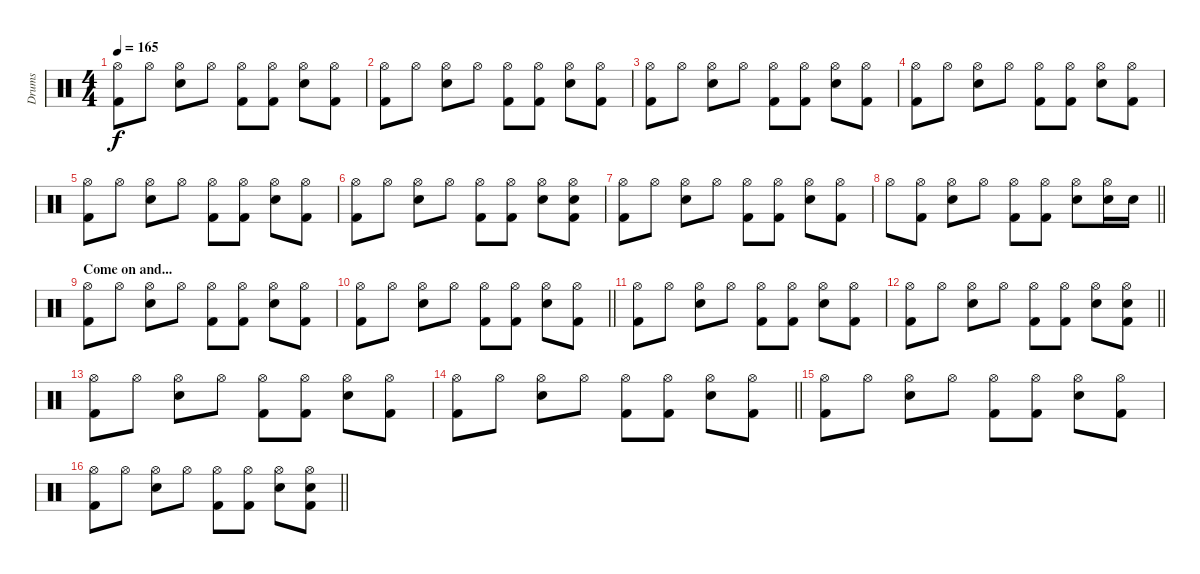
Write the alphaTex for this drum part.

\track ("Drums" "Drums") {instrument percussion}
\staff {score}
\articulation defaults
\ts (4 4)
\tempo 165
\clef neutral
\ks c
("Hi-Hat (open)" "Kick (hit) 2").8{dy f} "Hi-Hat (open)".8 ("Hi-Hat (open)" "Electric Snare (hit)").8 "Hi-Hat (open)".8 ("Hi-Hat (open)" "Kick (hit) 2").8 ("Hi-Hat (open)" "Kick (hit) 2").8 ("Hi-Hat (open)" "Electric Snare (hit)").8 ("Hi-Hat (open)" "Kick (hit) 2").8 |
("Hi-Hat (open)" "Kick (hit) 2").8 "Hi-Hat (open)".8 ("Hi-Hat (open)" "Electric Snare (hit)").8 "Hi-Hat (open)".8 ("Hi-Hat (open)" "Kick (hit) 2").8 ("Hi-Hat (open)" "Kick (hit) 2").8 ("Hi-Hat (open)" "Electric Snare (hit)").8 ("Hi-Hat (open)" "Kick (hit) 2").8 |
("Hi-Hat (open)" "Kick (hit) 2").8 "Hi-Hat (open)".8 ("Hi-Hat (open)" "Electric Snare (hit)").8 "Hi-Hat (open)".8 ("Hi-Hat (open)" "Kick (hit) 2").8 ("Hi-Hat (open)" "Kick (hit) 2").8 ("Hi-Hat (open)" "Electric Snare (hit)").8 ("Hi-Hat (open)" "Kick (hit) 2").8 |
("Hi-Hat (open)" "Kick (hit) 2").8 "Hi-Hat (open)".8 ("Hi-Hat (open)" "Electric Snare (hit)").8 "Hi-Hat (open)".8 ("Hi-Hat (open)" "Kick (hit) 2").8 ("Hi-Hat (open)" "Kick (hit) 2").8 ("Hi-Hat (open)" "Electric Snare (hit)").8 ("Hi-Hat (open)" "Kick (hit) 2").8 |
("Hi-Hat (open)" "Kick (hit) 2").8 "Hi-Hat (open)".8 ("Hi-Hat (open)" "Electric Snare (hit)").8 "Hi-Hat (open)".8 ("Hi-Hat (open)" "Kick (hit) 2").8 ("Hi-Hat (open)" "Kick (hit) 2").8 ("Hi-Hat (open)" "Electric Snare (hit)").8 ("Hi-Hat (open)" "Kick (hit) 2").8 |
("Hi-Hat (open)" "Kick (hit) 2").8 "Hi-Hat (open)".8 ("Hi-Hat (open)" "Electric Snare (hit)").8 "Hi-Hat (open)".8 ("Hi-Hat (open)" "Kick (hit) 2").8 ("Hi-Hat (open)" "Kick (hit) 2").8 ("Hi-Hat (open)" "Electric Snare (hit)").8 ("Hi-Hat (open)" "Electric Snare (hit)" "Kick (hit) 2").8 |
("Hi-Hat (open)" "Kick (hit) 2").8 "Hi-Hat (open)".8 ("Hi-Hat (open)" "Electric Snare (hit)").8 "Hi-Hat (open)".8 ("Hi-Hat (open)" "Kick (hit) 2").8 ("Hi-Hat (open)" "Kick (hit) 2").8 ("Hi-Hat (open)" "Electric Snare (hit)").8 ("Hi-Hat (open)" "Kick (hit) 2").8 |
\barLineRight lightlight "Hi-Hat (open)".8
("Hi-Hat (open)" "Kick (hit) 2").8 ("Hi-Hat (open)" "Electric Snare (hit)").8 "Hi-Hat (open)".8 ("Hi-Hat (open)" "Kick (hit) 2").8 ("Hi-Hat (open)" "Kick (hit) 2").8 ("Hi-Hat (open)" "Electric Snare (hit)").8 ("Hi-Hat (open)" "Electric Snare (hit)").16 "Electric Snare (hit)".16 |
\section ("" "Come on and...")
("Hi-Hat (open)" "Kick (hit) 2").8 "Hi-Hat (open)".8 ("Hi-Hat (open)" "Electric Snare (hit)").8 "Hi-Hat (open)".8 ("Hi-Hat (open)" "Kick (hit) 2").8 ("Hi-Hat (open)" "Kick (hit) 2").8 ("Hi-Hat (open)" "Electric Snare (hit)").8 ("Hi-Hat (open)" "Kick (hit) 2").8 |
\barLineRight lightlight
("Hi-Hat (open)" "Kick (hit) 2").8 "Hi-Hat (open)".8 ("Hi-Hat (open)" "Electric Snare (hit)").8 "Hi-Hat (open)".8 ("Hi-Hat (open)" "Kick (hit) 2").8 ("Hi-Hat (open)" "Kick (hit) 2").8 ("Hi-Hat (open)" "Electric Snare (hit)").8 ("Hi-Hat (open)" "Kick (hit) 2").8 |
("Hi-Hat (open)" "Kick (hit) 2").8 "Hi-Hat (open)".8 ("Hi-Hat (open)" "Electric Snare (hit)").8 "Hi-Hat (open)".8 ("Hi-Hat (open)" "Kick (hit) 2").8 ("Hi-Hat (open)" "Kick (hit) 2").8 ("Hi-Hat (open)" "Electric Snare (hit)").8 ("Hi-Hat (open)" "Kick (hit) 2").8 |
\barLineRight lightlight
("Hi-Hat (open)" "Kick (hit) 2").8 "Hi-Hat (open)".8 ("Hi-Hat (open)" "Electric Snare (hit)").8 "Hi-Hat (open)".8 ("Hi-Hat (open)" "Kick (hit) 2").8 ("Hi-Hat (open)" "Kick (hit) 2").8 ("Hi-Hat (open)" "Electric Snare (hit)").8 ("Hi-Hat (open)" "Electric Snare (hit)" "Kick (hit) 2").8 |
("Hi-Hat (open)" "Kick (hit) 2").8 "Hi-Hat (open)".8 ("Hi-Hat (open)" "Electric Snare (hit)").8 "Hi-Hat (open)".8 ("Hi-Hat (open)" "Kick (hit) 2").8 ("Hi-Hat (open)" "Kick (hit) 2").8 ("Hi-Hat (open)" "Electric Snare (hit)").8 ("Hi-Hat (open)" "Kick (hit) 2").8 |
\barLineRight lightlight
("Hi-Hat (open)" "Kick (hit) 2").8 "Hi-Hat (open)".8 ("Hi-Hat (open)" "Electric Snare (hit)").8 "Hi-Hat (open)".8 ("Hi-Hat (open)" "Kick (hit) 2").8 ("Hi-Hat (open)" "Kick (hit) 2").8 ("Hi-Hat (open)" "Electric Snare (hit)").8 ("Hi-Hat (open)" "Kick (hit) 2").8 |
("Hi-Hat (open)" "Kick (hit) 2").8 "Hi-Hat (open)".8 ("Hi-Hat (open)" "Electric Snare (hit)").8 "Hi-Hat (open)".8 ("Hi-Hat (open)" "Kick (hit) 2").8 ("Hi-Hat (open)" "Kick (hit) 2").8 ("Hi-Hat (open)" "Electric Snare (hit)").8 ("Hi-Hat (open)" "Kick (hit) 2").8 |
\barLineRight lightlight
("Hi-Hat (open)" "Kick (hit) 2").8 "Hi-Hat (open)".8 ("Hi-Hat (open)" "Electric Snare (hit)").8 "Hi-Hat (open)".8 ("Hi-Hat (open)" "Kick (hit) 2").8 ("Hi-Hat (open)" "Kick (hit) 2").8 ("Hi-Hat (open)" "Electric Snare (hit)").8 ("Hi-Hat (open)" "Electric Snare (hit)" "Kick (hit) 2").8
